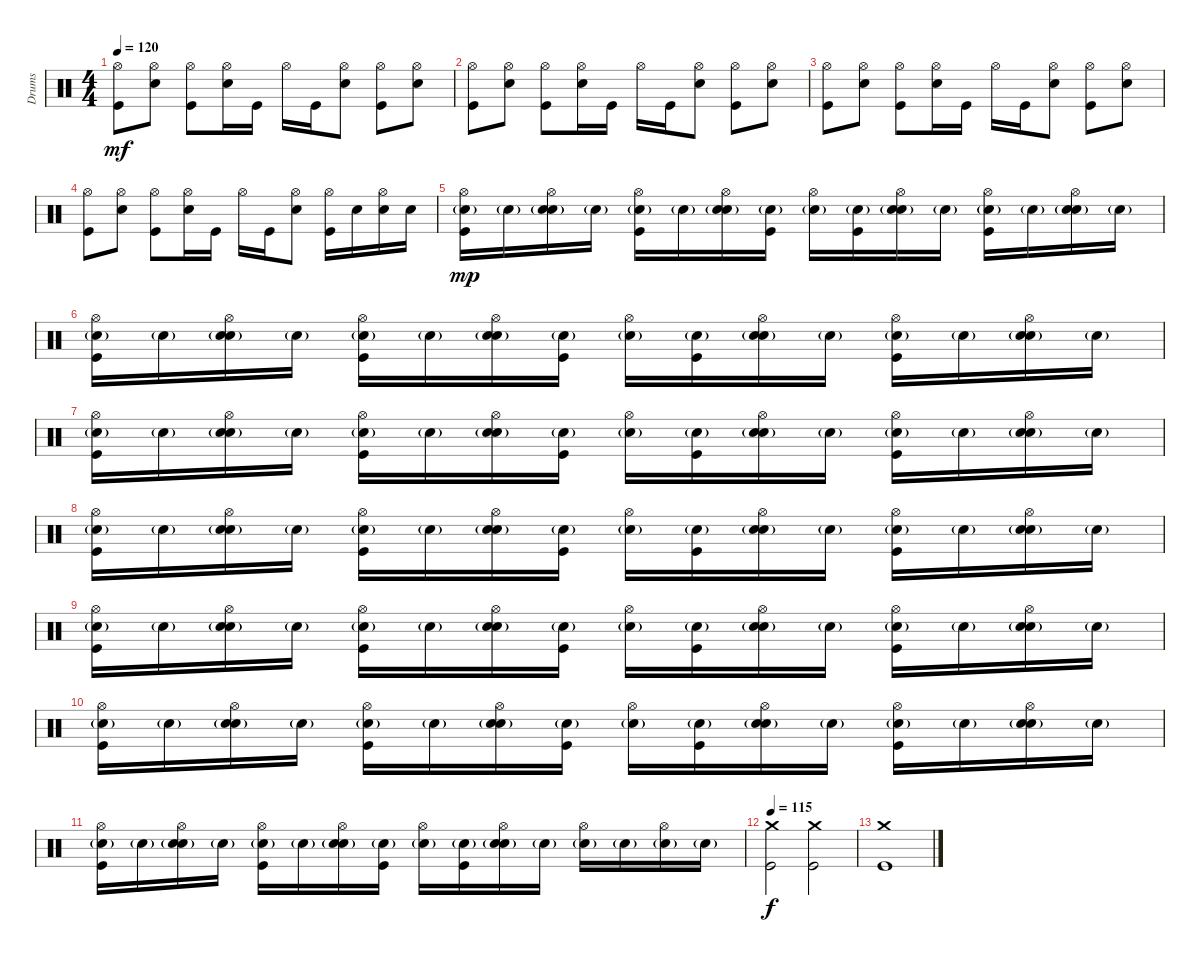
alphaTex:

\track ("Drums" "Drums") {instrument percussion}
\staff {score}
\articulation defaults
\ts (4 4)
\tempo 120
\clef neutral
\ks c
("Kick (hit)" "Hi-Hat (open)").8{dy mf} ("Electric Snare (hit)" "Hi-Hat (open)").8 ("Kick (hit)" "Hi-Hat (open)").8 ("Electric Snare (hit)" "Hi-Hat (open)").16 "Kick (hit)".16 "Hi-Hat (open)".16 "Kick (hit)".16 ("Electric Snare (hit)" "Hi-Hat (open)").8 ("Kick (hit)" "Hi-Hat (open)").8 ("Electric Snare (hit)" "Hi-Hat (open)").8 |
("Kick (hit)" "Hi-Hat (open)").8 ("Electric Snare (hit)" "Hi-Hat (open)").8 ("Kick (hit)" "Hi-Hat (open)").8 ("Electric Snare (hit)" "Hi-Hat (open)").16 "Kick (hit)".16 "Hi-Hat (open)".16 "Kick (hit)".16 ("Electric Snare (hit)" "Hi-Hat (open)").8 ("Kick (hit)" "Hi-Hat (open)").8 ("Electric Snare (hit)" "Hi-Hat (open)").8 |
("Kick (hit)" "Hi-Hat (open)").8 ("Electric Snare (hit)" "Hi-Hat (open)").8 ("Kick (hit)" "Hi-Hat (open)").8 ("Electric Snare (hit)" "Hi-Hat (open)").16 "Kick (hit)".16 "Hi-Hat (open)".16 "Kick (hit)".16 ("Electric Snare (hit)" "Hi-Hat (open)").8 ("Kick (hit)" "Hi-Hat (open)").8 ("Electric Snare (hit)" "Hi-Hat (open)").8 |
("Kick (hit)" "Hi-Hat (open)").8 ("Electric Snare (hit)" "Hi-Hat (open)").8 ("Kick (hit)" "Hi-Hat (open)").8 ("Electric Snare (hit)" "Hi-Hat (open)").16 "Kick (hit)".16 "Hi-Hat (open)".16 "Kick (hit)".16 ("Electric Snare (hit)" "Hi-Hat (open)").8 ("Kick (hit)" "Hi-Hat (open)").16 "Electric Snare (hit)".16 ("Electric Snare (hit)" "Hi-Hat (open)").16 "Electric Snare (hit)".16 |
("Kick (hit)" "Snare (hit) 2"{g} "Hi-Hat (open)").16{dy mp} "Snare (hit) 2"{g}.16 ("Electric Snare (hit)" "Snare (hit) 2"{g} "Hi-Hat (open)").16 "Snare (hit) 2"{g}.16 ("Kick (hit)" "Snare (hit) 2"{g} "Hi-Hat (open)").16 "Snare (hit) 2"{g}.16 ("Electric Snare (hit)" "Snare (hit) 2"{g} "Hi-Hat (open)").16 ("Kick (hit)" "Snare (hit) 2"{g}).16 ("Snare (hit) 2"{g} "Hi-Hat (open)").16 ("Kick (hit)" "Snare (hit) 2"{g}).16 ("Electric Snare (hit)" "Snare (hit) 2"{g} "Hi-Hat (open)").16 "Snare (hit) 2"{g}.16 ("Kick (hit)" "Snare (hit) 2"{g} "Hi-Hat (open)").16 "Snare (hit) 2"{g}.16 ("Electric Snare (hit)" "Snare (hit) 2"{g} "Hi-Hat (open)").16 "Snare (hit) 2"{g}.16 |
("Kick (hit)" "Snare (hit) 2"{g} "Hi-Hat (open)").16 "Snare (hit) 2"{g}.16 ("Electric Snare (hit)" "Snare (hit) 2"{g} "Hi-Hat (open)").16 "Snare (hit) 2"{g}.16 ("Kick (hit)" "Snare (hit) 2"{g} "Hi-Hat (open)").16 "Snare (hit) 2"{g}.16 ("Electric Snare (hit)" "Snare (hit) 2"{g} "Hi-Hat (open)").16 ("Kick (hit)" "Snare (hit) 2"{g}).16 ("Snare (hit) 2"{g} "Hi-Hat (open)").16 ("Kick (hit)" "Snare (hit) 2"{g}).16 ("Electric Snare (hit)" "Snare (hit) 2"{g} "Hi-Hat (open)").16 "Snare (hit) 2"{g}.16 ("Kick (hit)" "Snare (hit) 2"{g} "Hi-Hat (open)").16 "Snare (hit) 2"{g}.16 ("Electric Snare (hit)" "Snare (hit) 2"{g} "Hi-Hat (open)").16 "Snare (hit) 2"{g}.16 |
("Kick (hit)" "Snare (hit) 2"{g} "Hi-Hat (open)").16 "Snare (hit) 2"{g}.16 ("Electric Snare (hit)" "Snare (hit) 2"{g} "Hi-Hat (open)").16 "Snare (hit) 2"{g}.16 ("Kick (hit)" "Snare (hit) 2"{g} "Hi-Hat (open)").16 "Snare (hit) 2"{g}.16 ("Electric Snare (hit)" "Snare (hit) 2"{g} "Hi-Hat (open)").16 ("Kick (hit)" "Snare (hit) 2"{g}).16 ("Snare (hit) 2"{g} "Hi-Hat (open)").16 ("Kick (hit)" "Snare (hit) 2"{g}).16 ("Electric Snare (hit)" "Snare (hit) 2"{g} "Hi-Hat (open)").16 "Snare (hit) 2"{g}.16 ("Kick (hit)" "Snare (hit) 2"{g} "Hi-Hat (open)").16 "Snare (hit) 2"{g}.16 ("Electric Snare (hit)" "Snare (hit) 2"{g} "Hi-Hat (open)").16 "Snare (hit) 2"{g}.16 |
("Kick (hit)" "Snare (hit) 2"{g} "Hi-Hat (open)").16 "Snare (hit) 2"{g}.16 ("Electric Snare (hit)" "Snare (hit) 2"{g} "Hi-Hat (open)").16 "Snare (hit) 2"{g}.16 ("Kick (hit)" "Snare (hit) 2"{g} "Hi-Hat (open)").16 "Snare (hit) 2"{g}.16 ("Electric Snare (hit)" "Snare (hit) 2"{g} "Hi-Hat (open)").16 ("Kick (hit)" "Snare (hit) 2"{g}).16 ("Snare (hit) 2"{g} "Hi-Hat (open)").16 ("Kick (hit)" "Snare (hit) 2"{g}).16 ("Electric Snare (hit)" "Snare (hit) 2"{g} "Hi-Hat (open)").16 "Snare (hit) 2"{g}.16 ("Kick (hit)" "Snare (hit) 2"{g} "Hi-Hat (open)").16 "Snare (hit) 2"{g}.16 ("Electric Snare (hit)" "Snare (hit) 2"{g} "Hi-Hat (open)").16 "Snare (hit) 2"{g}.16 |
("Kick (hit)" "Snare (hit) 2"{g} "Hi-Hat (open)").16 "Snare (hit) 2"{g}.16 ("Electric Snare (hit)" "Snare (hit) 2"{g} "Hi-Hat (open)").16 "Snare (hit) 2"{g}.16 ("Kick (hit)" "Snare (hit) 2"{g} "Hi-Hat (open)").16 "Snare (hit) 2"{g}.16 ("Electric Snare (hit)" "Snare (hit) 2"{g} "Hi-Hat (open)").16 ("Kick (hit)" "Snare (hit) 2"{g}).16 ("Snare (hit) 2"{g} "Hi-Hat (open)").16 ("Kick (hit)" "Snare (hit) 2"{g}).16 ("Electric Snare (hit)" "Snare (hit) 2"{g} "Hi-Hat (open)").16 "Snare (hit) 2"{g}.16 ("Kick (hit)" "Snare (hit) 2"{g} "Hi-Hat (open)").16 "Snare (hit) 2"{g}.16 ("Electric Snare (hit)" "Snare (hit) 2"{g} "Hi-Hat (open)").16 "Snare (hit) 2"{g}.16 |
("Kick (hit)" "Snare (hit) 2"{g} "Hi-Hat (open)").16 "Snare (hit) 2"{g}.16 ("Electric Snare (hit)" "Snare (hit) 2"{g} "Hi-Hat (open)").16 "Snare (hit) 2"{g}.16 ("Kick (hit)" "Snare (hit) 2"{g} "Hi-Hat (open)").16 "Snare (hit) 2"{g}.16 ("Electric Snare (hit)" "Snare (hit) 2"{g} "Hi-Hat (open)").16 ("Kick (hit)" "Snare (hit) 2"{g}).16 ("Snare (hit) 2"{g} "Hi-Hat (open)").16 ("Kick (hit)" "Snare (hit) 2"{g}).16 ("Electric Snare (hit)" "Snare (hit) 2"{g} "Hi-Hat (open)").16 "Snare (hit) 2"{g}.16 ("Kick (hit)" "Snare (hit) 2"{g} "Hi-Hat (open)").16 "Snare (hit) 2"{g}.16 ("Electric Snare (hit)" "Snare (hit) 2"{g} "Hi-Hat (open)").16 "Snare (hit) 2"{g}.16 |
("Kick (hit)" "Snare (hit) 2"{g} "Hi-Hat (open)").16 "Snare (hit) 2"{g}.16 ("Electric Snare (hit)" "Snare (hit) 2"{g} "Hi-Hat (open)").16 "Snare (hit) 2"{g}.16 ("Kick (hit)" "Snare (hit) 2"{g} "Hi-Hat (open)").16 "Snare (hit) 2"{g}.16 ("Electric Snare (hit)" "Snare (hit) 2"{g} "Hi-Hat (open)").16 ("Kick (hit)" "Snare (hit) 2"{g}).16 ("Snare (hit) 2"{g} "Hi-Hat (open)").16 ("Kick (hit)" "Snare (hit) 2"{g}).16 ("Electric Snare (hit)" "Snare (hit) 2"{g} "Hi-Hat (open)").16 "Snare (hit) 2"{g}.16 ("Snare (hit) 2"{g} "Hi-Hat (open)").16 "Snare (hit) 2"{g}.16 ("Snare (hit) 2"{g} "Hi-Hat (open)").16 "Snare (hit) 2"{g}.16 |
\tempo 115
("Crash medium (hit)" "Kick (hit)").2{dy f} ("Crash medium (hit)" "Kick (hit)").2 |
("Crash medium (hit)" "Kick (hit)").1
